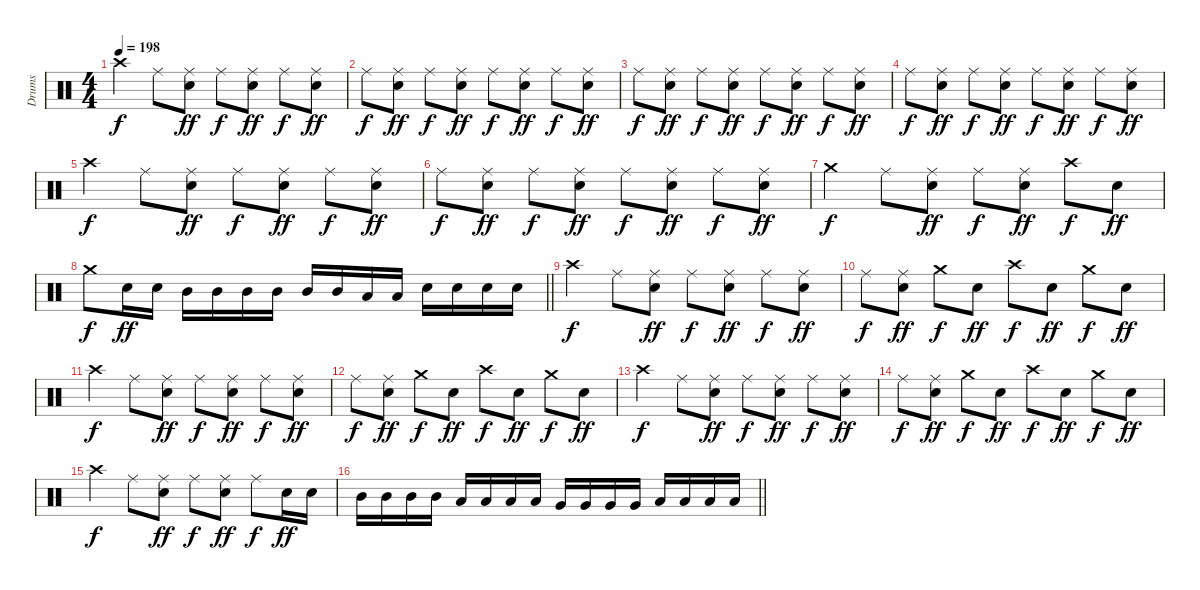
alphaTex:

\track ("Drums" "Drums") {instrument percussion}
\staff {score}
\articulation defaults
\ts (4 4)
\tempo 198
\clef neutral
\ks c "Crash high (hit)".4{dy f} "Ride (middle)".8
("Ride (middle)" "Snare (hit) 2").8{dy ff} "Ride (middle)".8{dy f} ("Ride (middle)" "Snare (hit) 2").8{dy ff} "Ride (middle)".8{dy f} ("Ride (middle)" "Snare (hit) 2").8{dy ff} |
"Ride (middle)".8{dy f} ("Ride (middle)" "Snare (hit) 2").8{dy ff} "Ride (middle)".8{dy f} ("Ride (middle)" "Snare (hit) 2").8{dy ff} "Ride (middle)".8{dy f} ("Ride (middle)" "Snare (hit) 2").8{dy ff} "Ride (middle)".8{dy f} ("Ride (middle)" "Snare (hit) 2").8{dy ff} |
"Ride (middle)".8{dy f} ("Ride (middle)" "Snare (hit) 2").8{dy ff} "Ride (middle)".8{dy f} ("Ride (middle)" "Snare (hit) 2").8{dy ff} "Ride (middle)".8{dy f} ("Ride (middle)" "Snare (hit) 2").8{dy ff} "Ride (middle)".8{dy f} ("Ride (middle)" "Snare (hit) 2").8{dy ff} |
"Ride (middle)".8{dy f} ("Ride (middle)" "Snare (hit) 2").8{dy ff} "Ride (middle)".8{dy f} ("Ride (middle)" "Snare (hit) 2").8{dy ff} "Ride (middle)".8{dy f} ("Ride (middle)" "Snare (hit) 2").8{dy ff} "Ride (middle)".8{dy f} ("Ride (middle)" "Snare (hit) 2").8{dy ff} |
"Crash high (hit)".4{dy f} "Ride (middle)".8 ("Ride (middle)" "Snare (hit) 2").8{dy ff} "Ride (middle)".8{dy f} ("Ride (middle)" "Snare (hit) 2").8{dy ff} "Ride (middle)".8{dy f} ("Ride (middle)" "Snare (hit) 2").8{dy ff} |
"Ride (middle)".8{dy f} ("Ride (middle)" "Snare (hit) 2").8{dy ff} "Ride (middle)".8{dy f} ("Ride (middle)" "Snare (hit) 2").8{dy ff} "Ride (middle)".8{dy f} ("Ride (middle)" "Snare (hit) 2").8{dy ff} "Ride (middle)".8{dy f} ("Ride (middle)" "Snare (hit) 2").8{dy ff} |
"Crash medium (hit)".4{dy f} "Ride (middle)".8 ("Ride (middle)" "Snare (hit) 2").8{dy ff} "Ride (middle)".8{dy f} ("Ride (middle)" "Snare (hit) 2").8{dy ff} "Crash high (hit)".8{dy f} "Snare (hit) 2".8{dy ff} |
\barLineRight lightlight "Crash medium (hit)".8{dy f} "Snare (hit) 2".16{dy ff} "Snare (hit) 2".16 "Mid Tom (hit)".16 "Mid Tom (hit)".16 "Mid Tom (hit)".16 "Mid Tom (hit)".16 "Mid Tom (hit)".16 "Mid Tom (hit)".16 "Low Tom (hit)".16 "Low Tom (hit)".16 "Snare (hit) 2".16 "Snare (hit) 2".16 "Snare (hit) 2".16 "Snare (hit) 2".16
|
\section ("" "")
"Crash high (hit)".4{dy f} "Ride (middle)".8 ("Ride (middle)" "Snare (hit) 2").8{dy ff} "Ride (middle)".8{dy f} ("Ride (middle)" "Snare (hit) 2").8{dy ff} "Ride (middle)".8{dy f} ("Ride (middle)" "Snare (hit) 2").8{dy ff} |
"Ride (middle)".8{dy f} ("Ride (middle)" "Snare (hit) 2").8{dy ff} "Crash medium (hit)".8{dy f} "Snare (hit) 2".8{dy ff} "Crash high (hit)".8{dy f} "Snare (hit) 2".8{dy ff} "Crash medium (hit)".8{dy f} "Snare (hit) 2".8{dy ff} |
"Crash high (hit)".4{dy f} "Ride (middle)".8 ("Ride (middle)" "Snare (hit) 2").8{dy ff} "Ride (middle)".8{dy f} ("Ride (middle)" "Snare (hit) 2").8{dy ff} "Ride (middle)".8{dy f} ("Ride (middle)" "Snare (hit) 2").8{dy ff} |
"Ride (middle)".8{dy f} ("Ride (middle)" "Snare (hit) 2").8{dy ff} "Crash medium (hit)".8{dy f} "Snare (hit) 2".8{dy ff} "Crash high (hit)".8{dy f} "Snare (hit) 2".8{dy ff} "Crash medium (hit)".8{dy f} "Snare (hit) 2".8{dy ff} |
"Crash high (hit)".4{dy f} "Ride (middle)".8 ("Ride (middle)" "Snare (hit) 2").8{dy ff} "Ride (middle)".8{dy f} ("Ride (middle)" "Snare (hit) 2").8{dy ff} "Ride (middle)".8{dy f} ("Ride (middle)" "Snare (hit) 2").8{dy ff} |
"Ride (middle)".8{dy f} ("Ride (middle)" "Snare (hit) 2").8{dy ff} "Crash medium (hit)".8{dy f} "Snare (hit) 2".8{dy ff} "Crash high (hit)".8{dy f} "Snare (hit) 2".8{dy ff} "Crash medium (hit)".8{dy f} "Snare (hit) 2".8{dy ff} |
"Crash high (hit)".4{dy f} "Ride (middle)".8 ("Ride (middle)" "Snare (hit) 2").8{dy ff} "Ride (middle)".8{dy f} ("Ride (middle)" "Snare (hit) 2").8{dy ff} "Ride (middle)".8{dy f} "Snare (hit) 2".16{dy ff} "Snare (hit) 2".16 |
\barLineRight lightlight "Mid Tom (hit)".16 "Mid Tom (hit)".16 "Mid Tom (hit)".16 "Mid Tom (hit)".16 "Low Tom (hit)".16 "Low Tom (hit)".16 "Low Tom (hit)".16 "Low Tom (hit)".16 "Very Low Tom (hit)".16 "Very Low Tom (hit)".16 "Very Low Tom (hit)".16 "Very Low Tom (hit)".16 "Low Floor Tom (hit)".16 "Low Floor Tom (hit)".16 "Low Floor Tom (hit)".16 "Low Floor Tom (hit)".16
